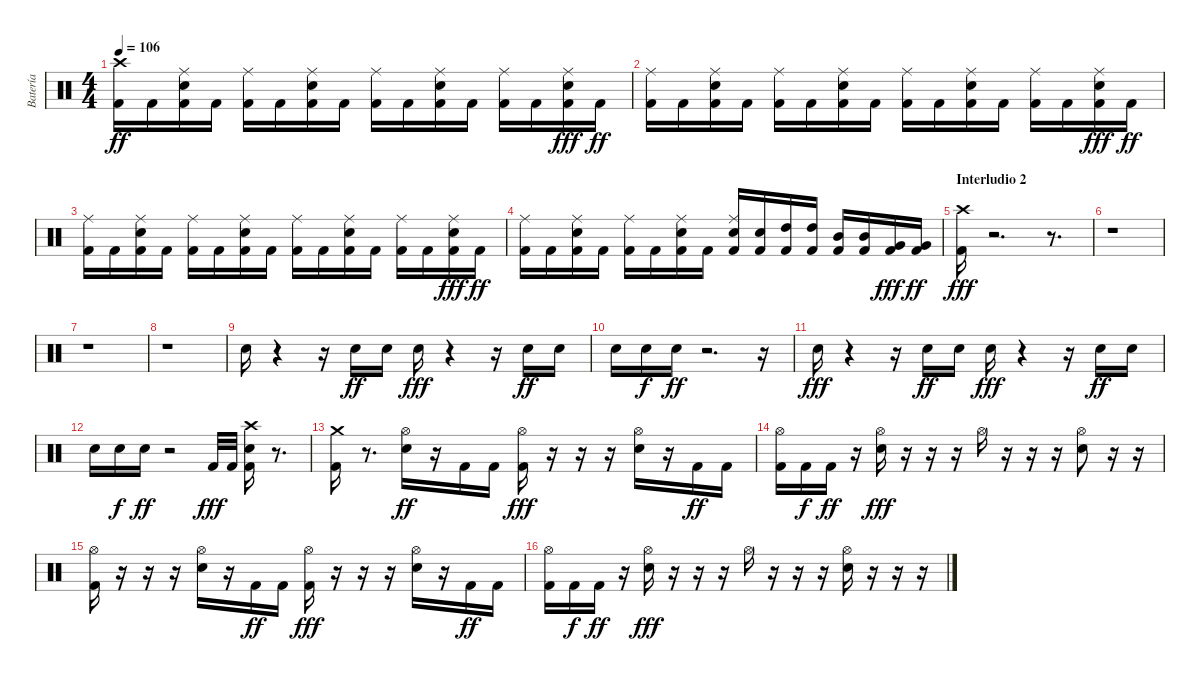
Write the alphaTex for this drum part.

\track ("Batería" "Batería") {instrument percussion}
\staff {score}
\articulation defaults
\ts (4 4)
\tempo 106
\clef neutral
\ks c
("Crash high (hit)" "Kick (hit) 2").16{dy ff} "Kick (hit) 2".16 ("Ride (middle)" "Electric Snare (hit)" "Kick (hit) 2").16 "Kick (hit) 2".16 ("Ride (middle)" "Kick (hit) 2").16 "Kick (hit) 2".16 ("Ride (middle)" "Electric Snare (hit)" "Kick (hit) 2").16 "Kick (hit) 2".16 ("Ride (middle)" "Kick (hit) 2").16 "Kick (hit) 2".16 ("Ride (middle)" "Electric Snare (hit)" "Kick (hit) 2").16 "Kick (hit) 2".16 ("Ride (middle)" "Kick (hit) 2").16 "Kick (hit) 2".16 ("Ride (middle)" "Electric Snare (hit)" "Kick (hit) 2").16{dy fff} "Kick (hit) 2".16{dy ff} |
("Ride (middle)" "Kick (hit) 2").16 "Kick (hit) 2".16 ("Ride (middle)" "Electric Snare (hit)" "Kick (hit) 2").16 "Kick (hit) 2".16 ("Ride (middle)" "Kick (hit) 2").16 "Kick (hit) 2".16 ("Ride (middle)" "Electric Snare (hit)" "Kick (hit) 2").16 "Kick (hit) 2".16 ("Ride (middle)" "Kick (hit) 2").16 "Kick (hit) 2".16 ("Ride (middle)" "Electric Snare (hit)" "Kick (hit) 2").16 "Kick (hit) 2".16 ("Ride (middle)" "Kick (hit) 2").16 "Kick (hit) 2".16 ("Ride (middle)" "Electric Snare (hit)" "Kick (hit) 2").16{dy fff} "Kick (hit) 2".16{dy ff} |
("Ride (middle)" "Kick (hit) 2").16 "Kick (hit) 2".16 ("Ride (middle)" "Electric Snare (hit)" "Kick (hit) 2").16 "Kick (hit) 2".16 ("Ride (middle)" "Kick (hit) 2").16 "Kick (hit) 2".16 ("Ride (middle)" "Electric Snare (hit)" "Kick (hit) 2").16 "Kick (hit) 2".16 ("Ride (middle)" "Kick (hit) 2").16 "Kick (hit) 2".16 ("Ride (middle)" "Electric Snare (hit)" "Kick (hit) 2").16 "Kick (hit) 2".16 ("Ride (middle)" "Kick (hit) 2").16 "Kick (hit) 2".16 ("Ride (middle)" "Electric Snare (hit)" "Kick (hit) 2").16{dy fff} "Kick (hit) 2".16{dy ff} |
("Ride (middle)" "Kick (hit) 2").16 "Kick (hit) 2".16 ("Ride (middle)" "Electric Snare (hit)" "Kick (hit) 2").16 "Kick (hit) 2".16 ("Ride (middle)" "Kick (hit) 2").16 "Kick (hit) 2".16 ("Ride (middle)" "Electric Snare (hit)" "Kick (hit) 2").16 "Kick (hit) 2".16 ("Ride (middle)" "Electric Snare (hit)" "Kick (hit) 2").16 ("Electric Snare (hit)" "Kick (hit) 2").16 ("High Tom (hit)" "Kick (hit) 2").16 ("High Tom (hit)" "Kick (hit) 2").16 ("Mid Tom (hit)" "Kick (hit) 2").16 ("Mid Tom (hit)" "Kick (hit) 2").16 ("Very Low Tom (hit)" "Kick (hit) 2").16{dy fff} ("Very Low Tom (hit)" "Kick (hit) 2").16{dy ff} |
\section ("" "Interludio 2")
("Crash high (hit)" "Kick (hit) 2").16{dy fff} r.2{d} r.8{d} |
r.1 |
r.1 |
r.1 |
"Electric Snare (hit)".16 r.4 r.16 "Electric Snare (hit)".16{dy ff} "Electric Snare (hit)".16 "Electric Snare (hit)".16{dy fff} r.4 r.16 "Electric Snare (hit)".16{dy ff} "Electric Snare (hit)".16 |
"Electric Snare (hit)".16 "Electric Snare (hit)".16{dy f} "Electric Snare (hit)".16{dy ff} r.2{d} r.16 |
"Electric Snare (hit)".16{dy fff} r.4 r.16 "Electric Snare (hit)".16{dy ff} "Electric Snare (hit)".16 "Electric Snare (hit)".16{dy fff} r.4 r.16 "Electric Snare (hit)".16{dy ff} "Electric Snare (hit)".16 |
"Electric Snare (hit)".16 "Electric Snare (hit)".16{dy f} "Electric Snare (hit)".16{dy ff} r.2 "Kick (hit) 2".32{dy fff} "Kick (hit) 2".32 ("Crash high (hit)" "Electric Snare (hit)" "Kick (hit) 2").16 r.8{d} |
("Crash medium (hit)" "Kick (hit) 2").16 r.8{d} ("Hi-Hat (open)" "Electric Snare (hit)").16{dy ff} r.16 "Kick (hit) 2".16 "Kick (hit) 2".16 ("Hi-Hat (open)" "Kick (hit) 2").16{dy fff} r.16 r.16 r.16 ("Hi-Hat (open)" "Electric Snare (hit)").16 r.16 "Kick (hit) 2".16{dy ff} "Kick (hit) 2".16 |
("Hi-Hat (open)" "Kick (hit) 2").16 "Kick (hit) 2".16{dy f} "Kick (hit) 2".16{dy ff} r.16 ("Hi-Hat (open)" "Electric Snare (hit)").16{dy fff} r.16 r.16 r.16 "Hi-Hat (open)".16 r.16 r.16 r.16 ("Hi-Hat (open)" "Electric Snare (hit)").8 r.16 r.16 |
("Hi-Hat (open)" "Kick (hit) 2").16 r.16 r.16 r.16 ("Hi-Hat (open)" "Electric Snare (hit)").16 r.16 "Kick (hit) 2".16{dy ff} "Kick (hit) 2".16 ("Hi-Hat (open)" "Kick (hit) 2").16{dy fff} r.16 r.16 r.16 ("Hi-Hat (open)" "Electric Snare (hit)").16 r.16 "Kick (hit) 2".16{dy ff} "Kick (hit) 2".16 |
("Hi-Hat (open)" "Kick (hit) 2").16 "Kick (hit) 2".16{dy f} "Kick (hit) 2".16{dy ff} r.16 ("Hi-Hat (open)" "Electric Snare (hit)").16{dy fff} r.16 r.16 r.16 "Hi-Hat (open)".16 r.16 r.16 r.16 ("Hi-Hat (open)" "Electric Snare (hit)").16 r.16 r.16 r.16
